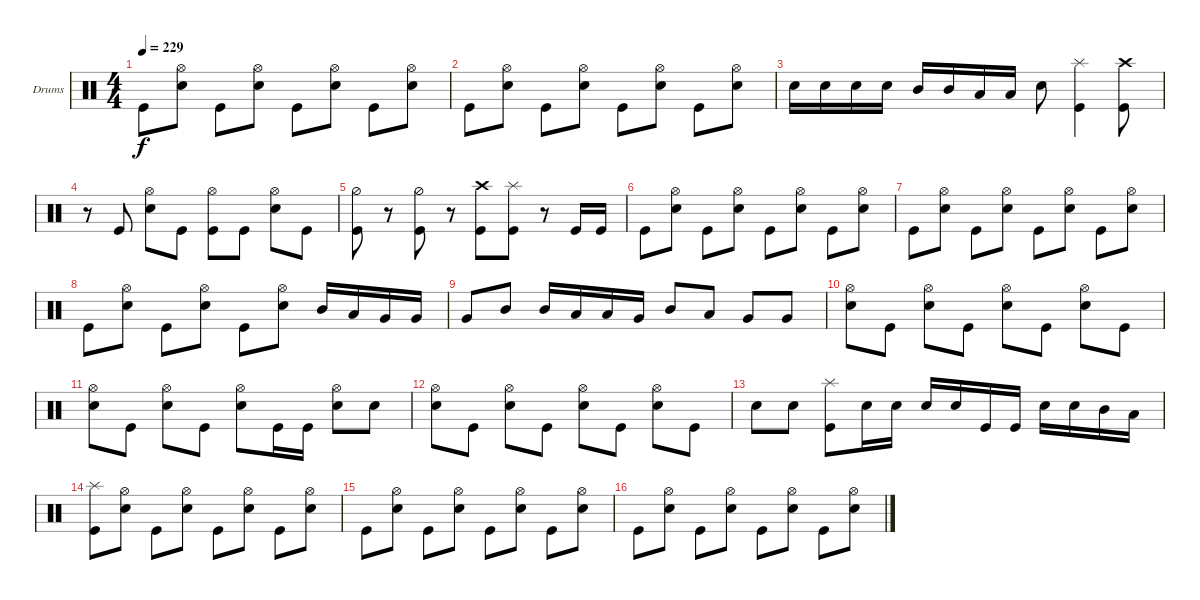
\defaultSystemsLayout 4
\bracketExtendMode groupsimilarinstruments
\firstSystemTrackNameOrientation horizontal
\otherSystemsTrackNameOrientation horizontal
\track ("Drumkit" "Drums") {instrument percussion}
\staff {score}
\articulation defaults
\ts (4 4)
\tempo 229
\clef neutral
\ks c "Kick (hit)".8{dy f}
("Snare (hit) 2" "Hi-Hat (open)").8 "Kick (hit)".8 ("Snare (hit) 2" "Hi-Hat (open)").8 "Kick (hit)".8 ("Snare (hit) 2" "Hi-Hat (open)").8 "Kick (hit)".8 ("Snare (hit) 2" "Hi-Hat (open)").8 |
"Kick (hit)".8 ("Snare (hit) 2" "Hi-Hat (open)").8 "Kick (hit)".8 ("Snare (hit) 2" "Hi-Hat (open)").8 "Kick (hit)".8 ("Snare (hit) 2" "Hi-Hat (open)").8 "Kick (hit)".8 ("Snare (hit) 2" "Hi-Hat (open)").8 |
"Snare (hit) 2".16 "Snare (hit) 2".16 "Snare (hit) 2".16 "Snare (hit) 2".16 "Mid Tom (hit)".16 "Mid Tom (hit)".16 "Low Tom (hit)".16 "Low Tom (hit)".16 "Snare (hit) 2".8 ("Kick (hit)" "Splash (hit)").4 ("Kick (hit)" "Crash high (hit)").8 |
r.8 "Kick (hit)".8 ("Snare (hit) 2" "Hi-Hat (open)").8 "Kick (hit)".8 ("Kick (hit)" "Hi-Hat (open)").8 "Kick (hit)".8 ("Snare (hit) 2" "Hi-Hat (open)").8 "Kick (hit)".8 |
("Kick (hit)" "Hi-Hat (half)").8 r.8 ("Kick (hit)" "Hi-Hat (half)").8 r.8 ("Kick (hit)" "Crash high (hit)").8 ("Kick (hit)" "Splash (hit)").8 r.8 "Kick (hit)".16 "Kick (hit)".16 |
"Kick (hit)".8 ("Snare (hit) 2" "Hi-Hat (open)").8 "Kick (hit)".8 ("Snare (hit) 2" "Hi-Hat (open)").8 "Kick (hit)".8 ("Snare (hit) 2" "Hi-Hat (open)").8 "Kick (hit)".8 ("Snare (hit) 2" "Hi-Hat (open)").8 |
"Kick (hit)".8 ("Snare (hit) 2" "Hi-Hat (open)").8 "Kick (hit)".8 ("Snare (hit) 2" "Hi-Hat (open)").8 "Kick (hit)".8 ("Snare (hit) 2" "Hi-Hat (open)").8 "Kick (hit)".8 ("Snare (hit) 2" "Hi-Hat (open)").8 |
"Kick (hit)".8 ("Snare (hit) 2" "Hi-Hat (open)").8 "Kick (hit)".8 ("Snare (hit) 2" "Hi-Hat (open)").8 "Kick (hit)".8 ("Snare (hit) 2" "Hi-Hat (open)").8 "Mid Tom (hit)".16 "Low Tom (hit)".16 "Very Low Tom (hit)".16 "Very Low Tom (hit)".16 |
"Very Low Tom (hit)".8 "Mid Tom (hit)".8 "Mid Tom (hit)".16 "Low Tom (hit)".16 "Low Tom (hit)".16 "Very Low Tom (hit)".16 "Mid Tom (hit)".8 "Low Tom (hit)".8 "Very Low Tom (hit)".8 "Very Low Tom (hit)".8 |
("Snare (hit) 2" "Hi-Hat (open)").8 "Kick (hit)".8 ("Snare (hit) 2" "Hi-Hat (open)").8 "Kick (hit)".8 ("Snare (hit) 2" "Hi-Hat (open)").8 "Kick (hit)".8 ("Snare (hit) 2" "Hi-Hat (open)").8 "Kick (hit)".8 |
("Snare (hit) 2" "Hi-Hat (open)").8 "Kick (hit)".8 ("Snare (hit) 2" "Hi-Hat (open)").8 "Kick (hit)".8 ("Snare (hit) 2" "Hi-Hat (open)").8 "Kick (hit)".16 "Kick (hit)".16 ("Snare (hit) 2" "Hi-Hat (open)").8 "Snare (hit) 2".8 |
("Snare (hit) 2" "Hi-Hat (open)").8 "Kick (hit)".8 ("Snare (hit) 2" "Hi-Hat (open)").8 "Kick (hit)".8 ("Snare (hit) 2" "Hi-Hat (open)").8 "Kick (hit)".8 ("Snare (hit) 2" "Hi-Hat (open)").8 "Kick (hit)".8 |
"Snare (hit) 2".8 "Snare (hit) 2".8 ("Kick (hit)" "Splash (hit)").8 "Snare (hit) 2".16 "Snare (hit) 2".16 "Snare (hit) 2".16 "Snare (hit) 2".16 "Kick (hit)".16 "Kick (hit)".16 "Snare (hit) 2".16 "Snare (hit) 2".16 "Mid Tom (hit)".16 "Low Tom (hit)".16 |
("Kick (hit)" "Splash (hit)").8 ("Snare (hit) 2" "Hi-Hat (open)").8 "Kick (hit)".8 ("Snare (hit) 2" "Hi-Hat (open)").8 "Kick (hit)".8 ("Snare (hit) 2" "Hi-Hat (open)").8 "Kick (hit)".8 ("Snare (hit) 2" "Hi-Hat (open)").8 |
"Kick (hit)".8 ("Snare (hit) 2" "Hi-Hat (open)").8 "Kick (hit)".8 ("Snare (hit) 2" "Hi-Hat (open)").8 "Kick (hit)".8 ("Snare (hit) 2" "Hi-Hat (open)").8 "Kick (hit)".8 ("Snare (hit) 2" "Hi-Hat (open)").8 |
"Kick (hit)".8 ("Snare (hit) 2" "Hi-Hat (open)").8 "Kick (hit)".8 ("Snare (hit) 2" "Hi-Hat (open)").8 "Kick (hit)".8 ("Snare (hit) 2" "Hi-Hat (open)").8 "Kick (hit)".8 ("Snare (hit) 2" "Hi-Hat (open)").8
